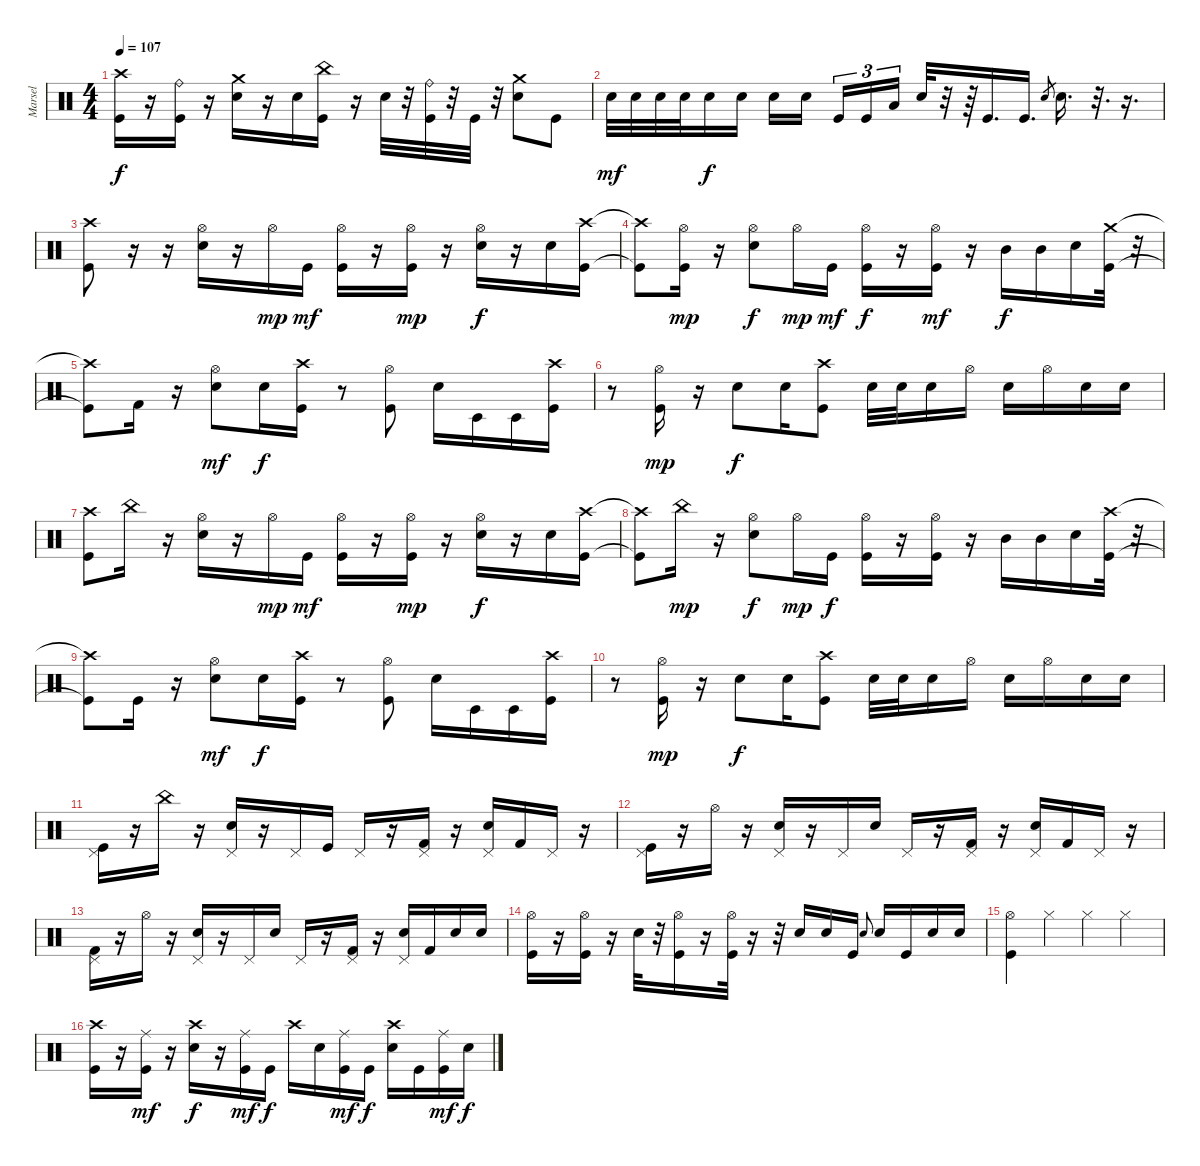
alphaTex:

\track ("Marsel" "Marsel") {instrument percussion}
\staff {score}
\articulation defaults
\ts (4 4)
\tempo 107
\clef neutral
\ks c
("Crash high (hit)" "Kick (hit)").16{dy f} r.16 ("Ride (bell)" "Kick (hit)").16 r.16 ("Crash medium (hit)" "Snare (hit) 2").16 r.16 "Snare (hit) 2".16 ("China (hit)" "Kick (hit)").16 r.16 "Snare (hit) 2".32 r.32 ("Ride (bell)" "Kick (hit)").32 r.32 "Kick (hit)".32 r.32 ("Crash medium (hit)" "Snare (hit) 2").8 "Kick (hit)".8 |
"Snare (hit) 2".32{dy mf} "Snare (hit) 2".32 "Snare (hit) 2".32 "Snare (hit) 2".32 "Snare (hit) 2".16{dy f} "Snare (hit) 2".16 "Snare (hit) 2".16 "Snare (hit) 2".16{beam splitsecondary} "Kick (hit)".16{tu (3 2)} "Kick (hit)".16{tu (3 2)} "Low Tom (hit)".16{tu (3 2)} "Snare (hit) 2".32 r.32 r.64 "Kick (hit)".16{d} "Kick (hit)".16{d} "Snare (hit) 2".8{gr} "Snare (hit) 2".16{d} r.32{d} r.16{d} |
("Crash high (hit)" "Kick (hit)").8 r.16 r.16 ("Hi-Hat (open)" "Snare (hit) 2").16 r.16 "Hi-Hat (open)".16{dy mp} "Kick (hit)".16{dy mf} ("Hi-Hat (open)" "Kick (hit)").16 r.16 ("Hi-Hat (open)" "Kick (hit)").16{dy mp} r.16 ("Hi-Hat (open)" "Snare (hit) 2").16{dy f} r.16 "Snare (hit) 2".16 ("Crash high (hit)" "Kick (hit)").16 |
("Crash high (hit)"{t} "Kick (hit)"{t}).8 ("Hi-Hat (open)" "Kick (hit)").16{dy mp} r.16 ("Hi-Hat (open)" "Snare (hit) 2").8{dy f} "Hi-Hat (open)".16{dy mp} "Kick (hit)".16{dy mf} ("Hi-Hat (open)" "Kick (hit)").16{dy f} r.16 ("Hi-Hat (open)" "Kick (hit)").16{dy mf} r.16 "Mid Tom (hit)".16{dy f} "Mid Tom (hit)".16 "Snare (hit) 2".16 ("Crash medium (hit)" "Kick (hit)").32 r.32 |
("Crash high (hit)"{t} "Kick (hit)"{t}).8 "Kick (hit) 2".16 r.16 ("Hi-Hat (open)" "Snare (hit) 2").8{dy mf} "Snare (hit) 2".16{dy f} ("Crash high (hit)" "Kick (hit)").16 r.8 ("Hi-Hat (open)" "Kick (hit)").8 "Snare (hit) 2".16 "Timbale low (hit)".16 "Timbale low (hit)".16 ("Crash high (hit)" "Kick (hit)").16 |
r.8 ("Hi-Hat (open)" "Kick (hit)").16{dy mp} r.16 "Snare (hit) 2".8{dy f} "Snare (hit) 2".16 ("Crash high (hit)" "Kick (hit)").8 "Snare (hit) 2".32 "Snare (hit) 2".32 "Snare (hit) 2".16 "Hi-Hat (open)".16 "Snare (hit) 2".16 "Hi-Hat (open)".16 "Snare (hit) 2".16 "Snare (hit) 2".16 |
("Crash high (hit)" "Kick (hit)").8 "China (hit)".16 r.16 ("Hi-Hat (open)" "Snare (hit) 2").16 r.16 "Hi-Hat (open)".16{dy mp} "Kick (hit)".16{dy mf} ("Hi-Hat (open)" "Kick (hit)").16 r.16 ("Hi-Hat (open)" "Kick (hit)").16{dy mp} r.16 ("Hi-Hat (open)" "Snare (hit) 2").16{dy f} r.16 "Snare (hit) 2".16 ("Crash high (hit)" "Kick (hit)").16 |
("Crash high (hit)"{t} "Kick (hit)"{t}).8 "China (hit)".16{dy mp} r.16 ("Hi-Hat (open)" "Snare (hit) 2").8{dy f} "Hi-Hat (open)".16{dy mp} "Kick (hit)".16{dy f} ("Hi-Hat (open)" "Kick (hit)").16 r.16 ("Hi-Hat (open)" "Kick (hit)").16 r.16 "Mid Tom (hit)".16 "Mid Tom (hit)".16 "Snare (hit) 2".16 ("Crash high (hit)" "Kick (hit)").32 r.32 |
("Crash high (hit)"{t} "Kick (hit)"{t}).8 "Kick (hit)".16 r.16 ("Hi-Hat (open)" "Snare (hit) 2").8{dy mf} "Snare (hit) 2".16{dy f} ("Crash high (hit)" "Kick (hit)").16 r.8 ("Hi-Hat (open)" "Kick (hit)").8 "Snare (hit) 2".16 "Timbale low (hit)".16 "Timbale low (hit)".16 ("Crash high (hit)" "Kick (hit)").16 |
r.8 ("Hi-Hat (open)" "Kick (hit)").16{dy mp} r.16 "Snare (hit) 2".8{dy f} "Snare (hit) 2".16 ("Crash high (hit)" "Kick (hit)").8 "Snare (hit) 2".32 "Snare (hit) 2".32 "Snare (hit) 2".16 "Hi-Hat (open)".16 "Snare (hit) 2".16 "Hi-Hat (open)".16 "Snare (hit) 2".16 "Snare (hit) 2".16 |
("Pedal Hi-Hat (hit)" "Kick (hit)").16 r.16 "China (hit)".16 r.16 ("Pedal Hi-Hat (hit)" "Snare (hit) 2").16 r.16 "Pedal Hi-Hat (hit)".16 "Kick (hit)".16 "Pedal Hi-Hat (hit)".16 r.16 ("Pedal Hi-Hat (hit)" "Kick (hit) 2").16 r.16 ("Pedal Hi-Hat (hit)" "Snare (hit) 2").16 "Kick (hit) 2".16 "Pedal Hi-Hat (hit)".16 r.16 |
("Pedal Hi-Hat (hit)" "Kick (hit)").16 r.16 "Hi-Hat (open)".16 r.16 ("Pedal Hi-Hat (hit)" "Snare (hit) 2").16 r.16 "Pedal Hi-Hat (hit)".16 "Snare (hit) 2".16 "Pedal Hi-Hat (hit)".16 r.16 ("Pedal Hi-Hat (hit)" "Kick (hit) 2").16 r.16 ("Pedal Hi-Hat (hit)" "Snare (hit) 2").16 "Kick (hit) 2".16 "Pedal Hi-Hat (hit)".16 r.16 |
("Pedal Hi-Hat (hit)" "Kick (hit) 2").16 r.16 "Hi-Hat (open)".16 r.16 ("Pedal Hi-Hat (hit)" "Snare (hit) 2").16 r.16 "Pedal Hi-Hat (hit)".16 "Snare (hit) 2".16 "Pedal Hi-Hat (hit)".16 r.16 ("Pedal Hi-Hat (hit)" "Kick (hit) 2").16 r.16 ("Pedal Hi-Hat (hit)" "Snare (hit) 2").16 "Kick (hit) 2".16 "Snare (hit) 2".16 "Snare (hit) 2".16 |
("Hi-Hat (open)" "Kick (hit)").16 r.16 ("Hi-Hat (open)" "Kick (hit)").16 r.16 "Snare (hit) 2".32 r.32 ("Hi-Hat (open)" "Kick (hit)").16 r.16 ("Hi-Hat (open)" "Kick (hit)").32 r.16 r.32 "Snare (hit) 2".16 "Snare (hit) 2".16 "Kick (hit)".16 "Snare (hit) 2".8{gr onbeat} "Snare (hit) 2".16 "Kick (hit)".16 "Snare (hit) 2".16 "Snare (hit) 2".16 |
("Hi-Hat (open)" "Kick (hit)").4 "Hi-Hat (closed)".4 "Hi-Hat (closed)".4 "Hi-Hat (closed)".4 |
("Crash high (hit)" "Kick (hit)").16 r.16 ("Ride (middle)" "Kick (hit)").16{dy mf} r.16 ("Crash high (hit)" "Snare (hit) 2").16{dy f} r.16 ("Ride (middle)" "Kick (hit)").16{dy mf} "Kick (hit)".16{dy f} "Crash high (hit)".16 "Snare (hit) 2".16 ("Ride (middle)" "Kick (hit)").16{dy mf} "Kick (hit)".16{dy f} ("Crash high (hit)" "Snare (hit) 2").16 "Kick (hit)".16 ("Ride (middle)" "Kick (hit)").16{dy mf} "Snare (hit) 2".16{dy f}
